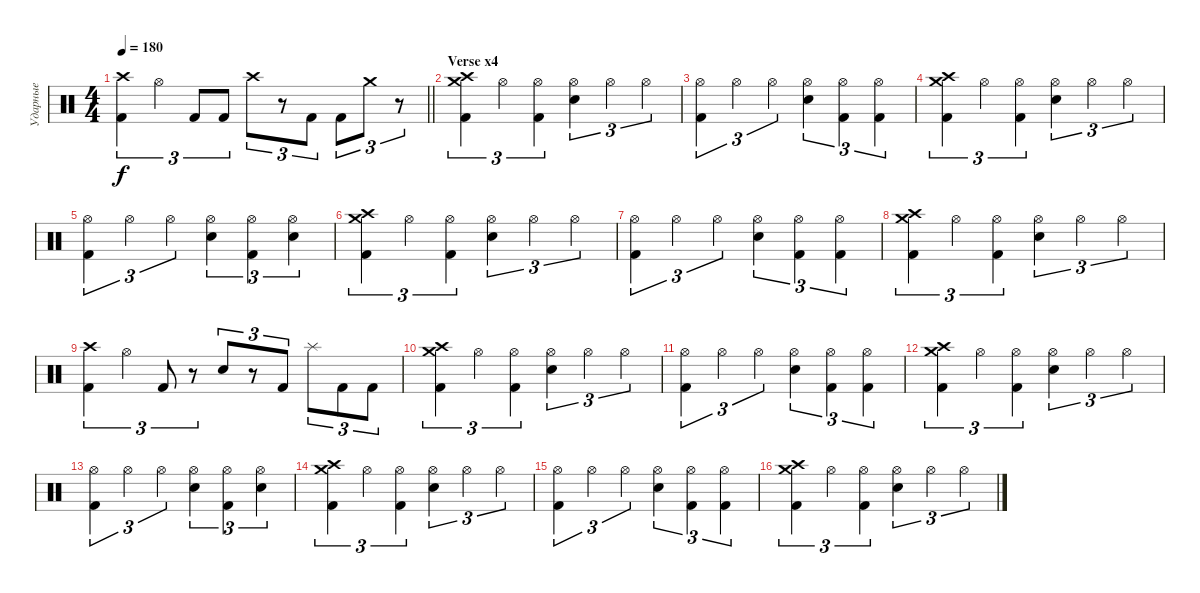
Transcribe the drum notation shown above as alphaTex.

\track ("Ударные" "Ударные") {instrument percussion}
\staff {score}
\articulation defaults
\ts (4 4)
\tempo 180
\clef neutral
\barLineRight lightlight
\ks c
("Crash high (hit)" "Kick (hit) 2").4{tu (3 2) dy f} "Hi-Hat (open)".4{tu (3 2)} "Kick (hit) 2".8{tu (3 2)} "Kick (hit) 2".8{tu (3 2)} "Crash high (hit)".8{tu (3 2)} r.8{tu (3 2)} "Kick (hit) 2".8{tu (3 2)} "Kick (hit) 2".8{tu (3 2)} "Crash medium (hit)".8{tu (3 2)} r.8{tu (3 2)} |
\section ("" "Verse x4")
("Crash medium (hit)" "Crash high (hit)" "Kick (hit) 2").4{tu (3 2)} "Hi-Hat (open)".4{tu (3 2)} ("Hi-Hat (open)" "Kick (hit) 2").4{tu (3 2)} ("Hi-Hat (open)" "Electric Snare (hit)").4{tu (3 2)} "Hi-Hat (open)".4{tu (3 2)} "Hi-Hat (open)".4{tu (3 2)} |
("Hi-Hat (open)" "Kick (hit) 2").4{tu (3 2)} "Hi-Hat (open)".4{tu (3 2)} "Hi-Hat (open)".4{tu (3 2)} ("Hi-Hat (open)" "Electric Snare (hit)").4{tu (3 2)} ("Hi-Hat (open)" "Kick (hit) 2").4{tu (3 2)} ("Hi-Hat (open)" "Kick (hit) 2").4{tu (3 2)} |
("Crash medium (hit)" "Crash high (hit)" "Kick (hit) 2").4{tu (3 2)} "Hi-Hat (open)".4{tu (3 2)} ("Hi-Hat (open)" "Kick (hit) 2").4{tu (3 2)} ("Hi-Hat (open)" "Electric Snare (hit)").4{tu (3 2)} "Hi-Hat (open)".4{tu (3 2)} "Hi-Hat (open)".4{tu (3 2)} |
("Hi-Hat (open)" "Kick (hit) 2").4{tu (3 2)} "Hi-Hat (open)".4{tu (3 2)} "Hi-Hat (open)".4{tu (3 2)} ("Hi-Hat (open)" "Electric Snare (hit)").4{tu (3 2)} ("Hi-Hat (open)" "Kick (hit) 2").4{tu (3 2)} ("Hi-Hat (open)" "Electric Snare (hit)").4{tu (3 2)} |
("Crash medium (hit)" "Crash high (hit)" "Kick (hit) 2").4{tu (3 2)} "Hi-Hat (open)".4{tu (3 2)} ("Hi-Hat (open)" "Kick (hit) 2").4{tu (3 2)} ("Hi-Hat (open)" "Electric Snare (hit)").4{tu (3 2)} "Hi-Hat (open)".4{tu (3 2)} "Hi-Hat (open)".4{tu (3 2)} |
("Hi-Hat (open)" "Kick (hit) 2").4{tu (3 2)} "Hi-Hat (open)".4{tu (3 2)} "Hi-Hat (open)".4{tu (3 2)} ("Hi-Hat (open)" "Electric Snare (hit)").4{tu (3 2)} ("Hi-Hat (open)" "Kick (hit) 2").4{tu (3 2)} ("Hi-Hat (open)" "Kick (hit) 2").4{tu (3 2)} |
("Crash medium (hit)" "Crash high (hit)" "Kick (hit) 2").4{tu (3 2)} "Hi-Hat (open)".4{tu (3 2)} ("Hi-Hat (open)" "Kick (hit) 2").4{tu (3 2)} ("Hi-Hat (open)" "Electric Snare (hit)").4{tu (3 2)} "Hi-Hat (open)".4{tu (3 2)} "Hi-Hat (open)".4{tu (3 2)} |
("Crash high (hit)" "Kick (hit) 2").4{tu (3 2)} "Hi-Hat (open)".4{tu (3 2)} "Kick (hit) 2".8{tu (3 2)} r.8{tu (3 2)} "Electric Snare (hit)".8{tu (3 2)} r.8{tu (3 2)} "Kick (hit) 2".8{tu (3 2)} "Splash (hit)".8{tu (3 2)} "Kick (hit) 2".8{tu (3 2)} "Kick (hit) 2".8{tu (3 2)} |
("Crash medium (hit)" "Crash high (hit)" "Kick (hit) 2").4{tu (3 2)} "Hi-Hat (open)".4{tu (3 2)} ("Hi-Hat (open)" "Kick (hit) 2").4{tu (3 2)} ("Hi-Hat (open)" "Electric Snare (hit)").4{tu (3 2)} "Hi-Hat (open)".4{tu (3 2)} "Hi-Hat (open)".4{tu (3 2)} |
("Hi-Hat (open)" "Kick (hit) 2").4{tu (3 2)} "Hi-Hat (open)".4{tu (3 2)} "Hi-Hat (open)".4{tu (3 2)} ("Hi-Hat (open)" "Electric Snare (hit)").4{tu (3 2)} ("Hi-Hat (open)" "Kick (hit) 2").4{tu (3 2)} ("Hi-Hat (open)" "Kick (hit) 2").4{tu (3 2)} |
("Crash medium (hit)" "Crash high (hit)" "Kick (hit) 2").4{tu (3 2)} "Hi-Hat (open)".4{tu (3 2)} ("Hi-Hat (open)" "Kick (hit) 2").4{tu (3 2)} ("Hi-Hat (open)" "Electric Snare (hit)").4{tu (3 2)} "Hi-Hat (open)".4{tu (3 2)} "Hi-Hat (open)".4{tu (3 2)} |
("Hi-Hat (open)" "Kick (hit) 2").4{tu (3 2)} "Hi-Hat (open)".4{tu (3 2)} "Hi-Hat (open)".4{tu (3 2)} ("Hi-Hat (open)" "Electric Snare (hit)").4{tu (3 2)} ("Hi-Hat (open)" "Kick (hit) 2").4{tu (3 2)} ("Hi-Hat (open)" "Electric Snare (hit)").4{tu (3 2)} |
("Crash medium (hit)" "Crash high (hit)" "Kick (hit) 2").4{tu (3 2)} "Hi-Hat (open)".4{tu (3 2)} ("Hi-Hat (open)" "Kick (hit) 2").4{tu (3 2)} ("Hi-Hat (open)" "Electric Snare (hit)").4{tu (3 2)} "Hi-Hat (open)".4{tu (3 2)} "Hi-Hat (open)".4{tu (3 2)} |
("Hi-Hat (open)" "Kick (hit) 2").4{tu (3 2)} "Hi-Hat (open)".4{tu (3 2)} "Hi-Hat (open)".4{tu (3 2)} ("Hi-Hat (open)" "Electric Snare (hit)").4{tu (3 2)} ("Hi-Hat (open)" "Kick (hit) 2").4{tu (3 2)} ("Hi-Hat (open)" "Kick (hit) 2").4{tu (3 2)} |
("Crash medium (hit)" "Crash high (hit)" "Kick (hit) 2").4{tu (3 2)} "Hi-Hat (open)".4{tu (3 2)} ("Hi-Hat (open)" "Kick (hit) 2").4{tu (3 2)} ("Hi-Hat (open)" "Electric Snare (hit)").4{tu (3 2)} "Hi-Hat (open)".4{tu (3 2)} "Hi-Hat (open)".4{tu (3 2)}
